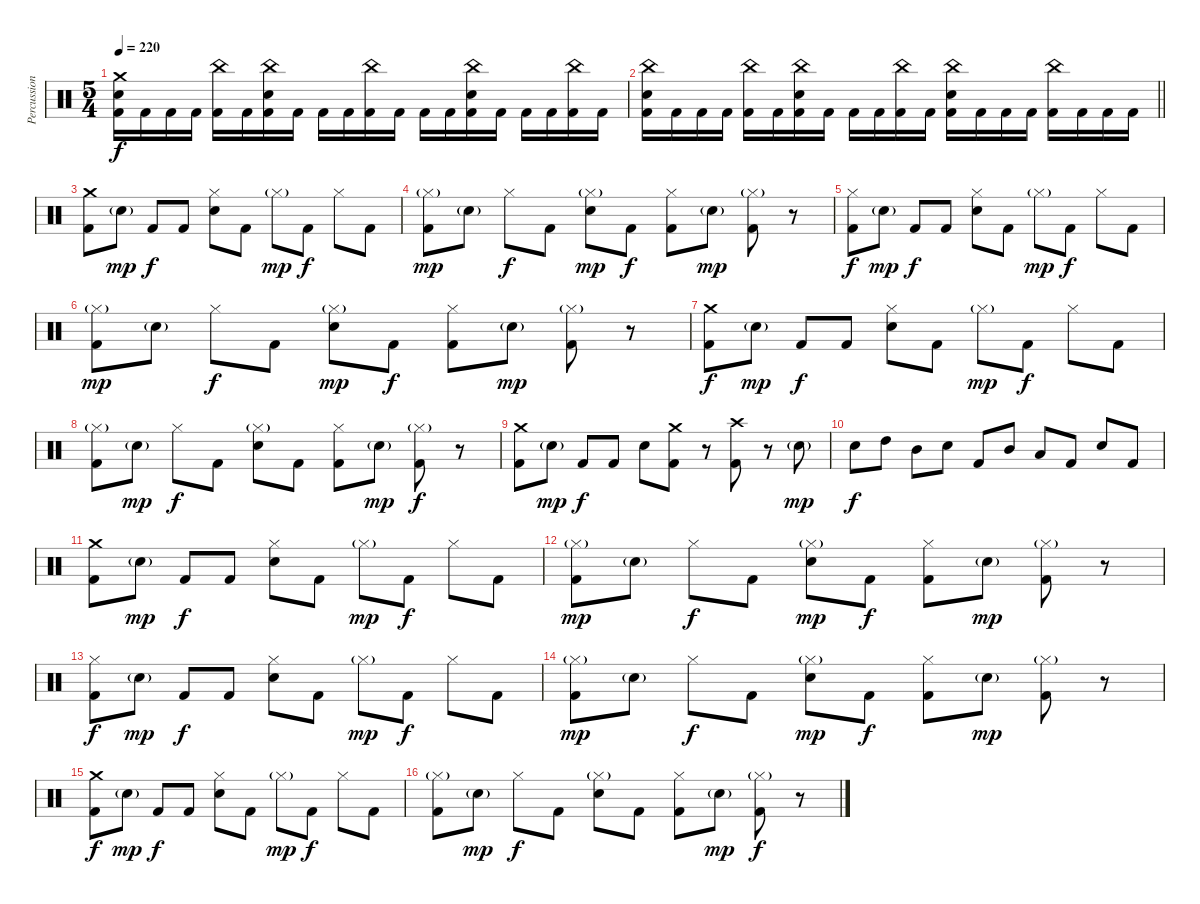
\track ("Percussion" "Percussion") {instrument percussion}
\staff {score}
\articulation defaults
\ts (5 4)
\tempo 220
\clef neutral
\ks c
("Crash medium (hit)" "Electric Snare (hit)" "Kick (hit) 2").16{dy f} "Kick (hit) 2".16 "Kick (hit) 2".16 "Kick (hit) 2".16 ("China (hit)" "Kick (hit) 2").16 "Kick (hit) 2".16 ("China (hit)" "Electric Snare (hit)" "Kick (hit) 2").16 "Kick (hit) 2".16 "Kick (hit) 2".16 "Kick (hit) 2".16 ("China (hit)" "Kick (hit) 2").16 "Kick (hit) 2".16 "Kick (hit) 2".16 "Kick (hit) 2".16 ("China (hit)" "Electric Snare (hit)" "Kick (hit) 2").16 "Kick (hit) 2".16 "Kick (hit) 2".16 "Kick (hit) 2".16 ("China (hit)" "Kick (hit) 2").16 "Kick (hit) 2".16 |
\barLineRight lightlight
("China (hit)" "Electric Snare (hit)" "Kick (hit) 2").16 "Kick (hit) 2".16 "Kick (hit) 2".16 "Kick (hit) 2".16 ("China (hit)" "Kick (hit) 2").16 "Kick (hit) 2".16 ("China (hit)" "Electric Snare (hit)" "Kick (hit) 2").16 "Kick (hit) 2".16 "Kick (hit) 2".16 "Kick (hit) 2".16 ("China (hit)" "Kick (hit) 2").16 "Kick (hit) 2".16 ("China (hit)" "Electric Snare (hit)" "Kick (hit) 2").16 "Kick (hit) 2".16 "Kick (hit) 2".16 "Kick (hit) 2".16 ("China (hit)" "Kick (hit) 2").16 "Kick (hit) 2".16 "Kick (hit) 2".16 "Kick (hit) 2".16 |
("Crash medium (hit)" "Kick (hit) 2").8 "Electric Snare (hit)"{g}.8{dy mp} "Kick (hit) 2".8{dy f} "Kick (hit) 2".8 ("Hi-Hat (closed)" "Electric Snare (hit)").8 "Kick (hit) 2".8 "Hi-Hat (closed)"{g}.8{dy mp} "Kick (hit) 2".8{dy f} "Hi-Hat (closed)".8 "Kick (hit) 2".8 |
("Hi-Hat (closed)"{g} "Kick (hit) 2").8{dy mp} "Electric Snare (hit)"{g}.8 "Hi-Hat (closed)".8{dy f} "Kick (hit) 2".8 ("Hi-Hat (closed)"{g} "Electric Snare (hit)").8{dy mp} "Kick (hit) 2".8{dy f} ("Hi-Hat (closed)" "Kick (hit) 2").8 "Electric Snare (hit)"{g}.8{dy mp} ("Hi-Hat (closed)"{g} "Kick (hit) 2").8 r.8 |
("Hi-Hat (closed)" "Kick (hit) 2").8{dy f} "Electric Snare (hit)"{g}.8{dy mp} "Kick (hit) 2".8{dy f} "Kick (hit) 2".8 ("Hi-Hat (closed)" "Electric Snare (hit)").8 "Kick (hit) 2".8 "Hi-Hat (closed)"{g}.8{dy mp} "Kick (hit) 2".8{dy f} "Hi-Hat (closed)".8 "Kick (hit) 2".8 |
("Hi-Hat (closed)"{g} "Kick (hit) 2").8{dy mp} "Electric Snare (hit)"{g}.8 "Hi-Hat (closed)".8{dy f} "Kick (hit) 2".8 ("Hi-Hat (closed)"{g} "Electric Snare (hit)").8{dy mp} "Kick (hit) 2".8{dy f} ("Hi-Hat (closed)" "Kick (hit) 2").8 "Electric Snare (hit)"{g}.8{dy mp} ("Hi-Hat (closed)"{g} "Kick (hit) 2").8 r.8 |
("Crash medium (hit)" "Kick (hit) 2").8{dy f} "Electric Snare (hit)"{g}.8{dy mp} "Kick (hit) 2".8{dy f} "Kick (hit) 2".8 ("Hi-Hat (closed)" "Electric Snare (hit)").8 "Kick (hit) 2".8 "Hi-Hat (closed)"{g}.8{dy mp} "Kick (hit) 2".8{dy f} "Hi-Hat (closed)".8 "Kick (hit) 2".8 |
("Hi-Hat (closed)"{g} "Kick (hit) 2").8 "Electric Snare (hit)"{g}.8{dy mp} "Hi-Hat (closed)".8{dy f} "Kick (hit) 2".8 ("Hi-Hat (closed)"{g} "Electric Snare (hit)").8 "Kick (hit) 2".8 ("Hi-Hat (closed)" "Kick (hit) 2").8 "Electric Snare (hit)"{g}.8{dy mp} ("Hi-Hat (closed)"{g} "Kick (hit) 2").8{dy f} r.8 |
("Crash medium (hit)" "Kick (hit) 2").8 "Electric Snare (hit)"{g}.8{dy mp} "Kick (hit) 2".8{dy f} "Kick (hit) 2".8 "Electric Snare (hit)".8 ("Crash medium (hit)" "Kick (hit) 2").8 r.8 ("Crash high (hit)" "Kick (hit) 2").8 r.8 "Electric Snare (hit)"{g}.8{dy mp} |
"Electric Snare (hit)".8{dy f} "High Tom (hit)".8 "Mid Tom (hit)".8 "Electric Snare (hit)".8 "Kick (hit) 2".8 "Mid Tom (hit)".8 "Low Tom (hit)".8 "Kick (hit) 2".8 "Electric Snare (hit)".8 "Kick (hit) 2".8 |
("Crash medium (hit)" "Kick (hit) 2").8 "Electric Snare (hit)"{g}.8{dy mp} "Kick (hit) 2".8{dy f} "Kick (hit) 2".8 ("Hi-Hat (closed)" "Electric Snare (hit)").8 "Kick (hit) 2".8 "Hi-Hat (closed)"{g}.8{dy mp} "Kick (hit) 2".8{dy f} "Hi-Hat (closed)".8 "Kick (hit) 2".8 |
("Hi-Hat (closed)"{g} "Kick (hit) 2").8{dy mp} "Electric Snare (hit)"{g}.8 "Hi-Hat (closed)".8{dy f} "Kick (hit) 2".8 ("Hi-Hat (closed)"{g} "Electric Snare (hit)").8{dy mp} "Kick (hit) 2".8{dy f} ("Hi-Hat (closed)" "Kick (hit) 2").8 "Electric Snare (hit)"{g}.8{dy mp} ("Hi-Hat (closed)"{g} "Kick (hit) 2").8 r.8 |
("Hi-Hat (closed)" "Kick (hit) 2").8{dy f} "Electric Snare (hit)"{g}.8{dy mp} "Kick (hit) 2".8{dy f} "Kick (hit) 2".8 ("Hi-Hat (closed)" "Electric Snare (hit)").8 "Kick (hit) 2".8 "Hi-Hat (closed)"{g}.8{dy mp} "Kick (hit) 2".8{dy f} "Hi-Hat (closed)".8 "Kick (hit) 2".8 |
("Hi-Hat (closed)"{g} "Kick (hit) 2").8{dy mp} "Electric Snare (hit)"{g}.8 "Hi-Hat (closed)".8{dy f} "Kick (hit) 2".8 ("Hi-Hat (closed)"{g} "Electric Snare (hit)").8{dy mp} "Kick (hit) 2".8{dy f} ("Hi-Hat (closed)" "Kick (hit) 2").8 "Electric Snare (hit)"{g}.8{dy mp} ("Hi-Hat (closed)"{g} "Kick (hit) 2").8 r.8 |
("Crash medium (hit)" "Kick (hit) 2").8{dy f} "Electric Snare (hit)"{g}.8{dy mp} "Kick (hit) 2".8{dy f} "Kick (hit) 2".8 ("Hi-Hat (closed)" "Electric Snare (hit)").8 "Kick (hit) 2".8 "Hi-Hat (closed)"{g}.8{dy mp} "Kick (hit) 2".8{dy f} "Hi-Hat (closed)".8 "Kick (hit) 2".8 |
("Hi-Hat (closed)"{g} "Kick (hit) 2").8 "Electric Snare (hit)"{g}.8{dy mp} "Hi-Hat (closed)".8{dy f} "Kick (hit) 2".8 ("Hi-Hat (closed)"{g} "Electric Snare (hit)").8 "Kick (hit) 2".8 ("Hi-Hat (closed)" "Kick (hit) 2").8 "Electric Snare (hit)"{g}.8{dy mp} ("Hi-Hat (closed)"{g} "Kick (hit) 2").8{dy f} r.8
